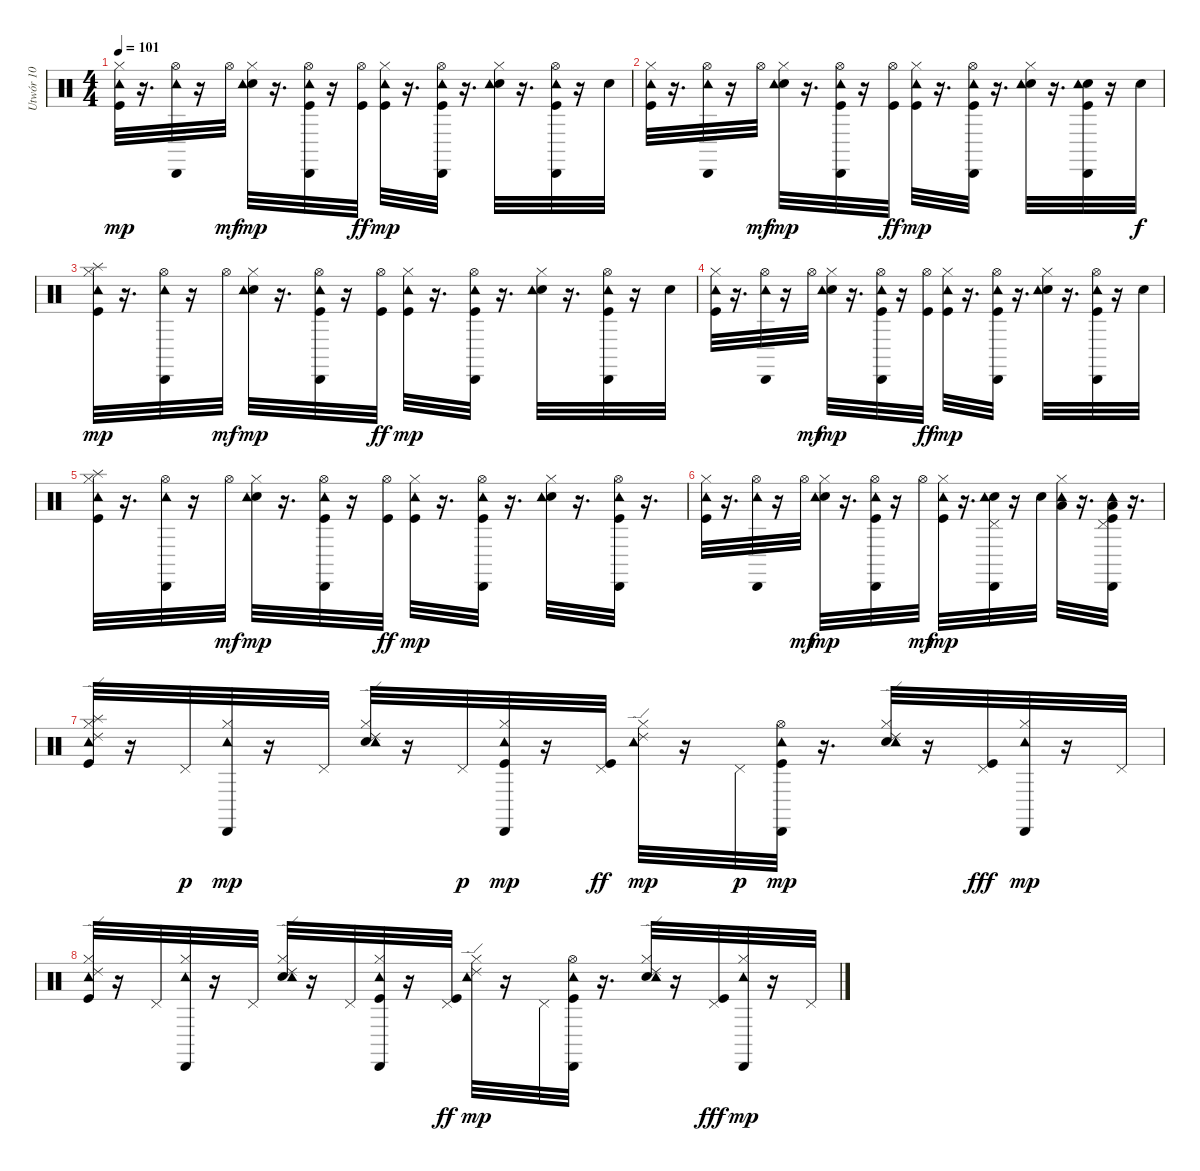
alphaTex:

\track ("Utwór 10" "Utwór 10") {instrument percussion}
\staff {score}
\articulation defaults
\ts (4 4)
\tempo 101
\clef neutral
\ks c
("Hi-Hat (closed)" "Kick (hit)" "Tambourine (hit)").32{dy mp} r.16{d} ("Cabasa (hit)" "Hi-Hat (open)" "Tambourine (hit)").32 r.16 "Hi-Hat (open)".32{dy mf} ("Electric Snare (hit)" "Hi-Hat (closed)" "Tambourine (hit)").32{dy mp} r.16{d} ("Cabasa (hit)" "Hi-Hat (open)" "Kick (hit)" "Tambourine (hit)").32 r.16 ("Hi-Hat (open)" "Kick (hit)").32{dy ff} ("Hi-Hat (closed)" "Kick (hit)" "Tambourine (hit)").32{dy mp} r.16{d} ("Cabasa (hit)" "Hi-Hat (open)" "Kick (hit)" "Tambourine (hit)").32 r.16{d} ("Electric Snare (hit)" "Hi-Hat (closed)" "Tambourine (hit)").32 r.16{d} ("Cabasa (hit)" "Hi-Hat (open)" "Kick (hit)" "Tambourine (hit)").32 r.16 "Electric Snare (hit)".32 |
("Hi-Hat (closed)" "Kick (hit)" "Tambourine (hit)").32 r.16{d} ("Cabasa (hit)" "Hi-Hat (open)" "Tambourine (hit)").32 r.16 "Hi-Hat (open)".32{dy mf} ("Electric Snare (hit)" "Hi-Hat (closed)" "Tambourine (hit)").32{dy mp} r.16{d} ("Cabasa (hit)" "Hi-Hat (open)" "Kick (hit)" "Tambourine (hit)").32 r.16 ("Hi-Hat (open)" "Kick (hit)").32{dy ff} ("Hi-Hat (closed)" "Kick (hit)" "Tambourine (hit)").32{dy mp} r.16{d} ("Cabasa (hit)" "Hi-Hat (open)" "Kick (hit)" "Tambourine (hit)").32 r.16{d} ("Electric Snare (hit)" "Hi-Hat (closed)" "Tambourine (hit)").32 r.16{d} ("Cabasa (hit)" "Electric Snare (hit)" "Kick (hit)" "Tambourine (hit)").32 r.16 "Electric Snare (hit)".32{dy f} |
("Splash (hit)" "Hi-Hat (closed)" "Kick (hit)" "Tambourine (hit)").32{dy mp} r.16{d} ("Cabasa (hit)" "Hi-Hat (open)" "Tambourine (hit)").32 r.16 "Hi-Hat (open)".32{dy mf} ("Electric Snare (hit)" "Hi-Hat (closed)" "Tambourine (hit)").32{dy mp} r.16{d} ("Cabasa (hit)" "Hi-Hat (open)" "Kick (hit)" "Tambourine (hit)").32 r.16 ("Hi-Hat (open)" "Kick (hit)").32{dy ff} ("Hi-Hat (closed)" "Kick (hit)" "Tambourine (hit)").32{dy mp} r.16{d} ("Cabasa (hit)" "Hi-Hat (open)" "Kick (hit)" "Tambourine (hit)").32 r.16{d} ("Electric Snare (hit)" "Hi-Hat (closed)" "Tambourine (hit)").32 r.16{d} ("Cabasa (hit)" "Hi-Hat (open)" "Kick (hit)" "Tambourine (hit)").32 r.16 "Electric Snare (hit)".32 |
("Hi-Hat (closed)" "Kick (hit)" "Tambourine (hit)").32 r.16{d} ("Cabasa (hit)" "Hi-Hat (open)" "Tambourine (hit)").32 r.16 "Hi-Hat (open)".32{dy mf} ("Electric Snare (hit)" "Hi-Hat (closed)" "Tambourine (hit)").32{dy mp} r.16{d} ("Cabasa (hit)" "Hi-Hat (open)" "Kick (hit)" "Tambourine (hit)").32 r.16 ("Hi-Hat (open)" "Kick (hit)").32{dy ff} ("Hi-Hat (closed)" "Kick (hit)" "Tambourine (hit)").32{dy mp} r.16{d} ("Cabasa (hit)" "Hi-Hat (open)" "Kick (hit)" "Tambourine (hit)").32 r.16{d} ("Electric Snare (hit)" "Hi-Hat (closed)" "Tambourine (hit)").32 r.16{d} ("Cabasa (hit)" "Hi-Hat (open)" "Kick (hit)" "Tambourine (hit)").32 r.16 "Electric Snare (hit)".32 |
("Splash (hit)" "Hi-Hat (closed)" "Kick (hit)" "Tambourine (hit)").32 r.16{d} ("Cabasa (hit)" "Hi-Hat (open)" "Tambourine (hit)").32 r.16 "Hi-Hat (open)".32{dy mf} ("Electric Snare (hit)" "Hi-Hat (closed)" "Tambourine (hit)").32{dy mp} r.16{d} ("Cabasa (hit)" "Hi-Hat (open)" "Kick (hit)" "Tambourine (hit)").32 r.16 ("Hi-Hat (open)" "Kick (hit)").32{dy ff} ("Hi-Hat (closed)" "Kick (hit)" "Tambourine (hit)").32{dy mp} r.16{d} ("Cabasa (hit)" "Hi-Hat (open)" "Kick (hit)" "Tambourine (hit)").32 r.16{d} ("Electric Snare (hit)" "Hi-Hat (closed)" "Tambourine (hit)").32 r.16{d} ("Cabasa (hit)" "Hi-Hat (open)" "Kick (hit)" "Tambourine (hit)").32 r.16{d} |
("Hi-Hat (closed)" "Kick (hit)" "Tambourine (hit)").32 r.16{d} ("Cabasa (hit)" "Hi-Hat (open)" "Tambourine (hit)").32 r.16 "Hi-Hat (open)".32{dy mf} ("Electric Snare (hit)" "Hi-Hat (closed)" "Tambourine (hit)").32{dy mp} r.16{d} ("Cabasa (hit)" "Hi-Hat (open)" "Kick (hit)" "Tambourine (hit)").32 r.16 "Hi-Hat (open)".32{dy mf} ("Hi-Hat (closed)" "Kick (hit)" "Tambourine (hit)").32{dy mp} r.16{d} ("Cabasa (hit)" "Electric Snare (hit)" "Pedal Hi-Hat (hit)" "Tambourine (hit)").32 r.16 "Electric Snare (hit)".32 ("Low Tom (hit)" "Hi-Hat (closed)" "Tambourine (hit)").32 r.16{d} ("Cabasa (hit)" "Low Floor Tom (hit)" "Pedal Hi-Hat (hit)" "Kick (hit)" "Tambourine (hit)").32 r.16{d} |
("Ride (edge) 2" "Splash (hit)" "Hi-Hat (closed)" "Kick (hit)" "Tambourine (hit)").32 r.16 "Pedal Hi-Hat (hit)".32{dy p} ("Cabasa (hit)" "Hi-Hat (closed)" "Tambourine (hit)").32{dy mp} r.16 "Pedal Hi-Hat (hit)".32 ("Ride (edge) 2" "Electric Snare (hit)" "Hi-Hat (closed)" "Tambourine (hit)").32 r.16 "Pedal Hi-Hat (hit)".32{dy p} ("Cabasa (hit)" "Hi-Hat (closed)" "Kick (hit)" "Tambourine (hit)").32{dy mp} r.16 ("Pedal Hi-Hat (hit)" "Kick (hit)").32{dy ff} ("Ride (edge) 2" "Hi-Hat (closed)" "Tambourine (hit)").32{dy mp} r.16 "Pedal Hi-Hat (hit)".32{dy p} ("Cabasa (hit)" "Hi-Hat (open)" "Kick (hit)" "Tambourine (hit)").32{dy mp} r.16{d} ("Ride (edge) 2" "Electric Snare (hit)" "Hi-Hat (closed)" "Tambourine (hit)").32 r.16 ("Pedal Hi-Hat (hit)" "Kick (hit)").32{dy fff} ("Cabasa (hit)" "Hi-Hat (closed)" "Tambourine (hit)").32{dy mp} r.16 "Pedal Hi-Hat (hit)".32 |
("Ride (edge) 2" "Hi-Hat (closed)" "Kick (hit)" "Tambourine (hit)").32 r.16 "Pedal Hi-Hat (hit)".32 ("Cabasa (hit)" "Hi-Hat (closed)" "Tambourine (hit)").32 r.16 "Pedal Hi-Hat (hit)".32 ("Ride (edge) 2" "Electric Snare (hit)" "Hi-Hat (closed)" "Tambourine (hit)").32 r.16 "Pedal Hi-Hat (hit)".32 ("Cabasa (hit)" "Hi-Hat (closed)" "Kick (hit)" "Tambourine (hit)").32 r.16 ("Pedal Hi-Hat (hit)" "Kick (hit)").32{dy ff} ("Ride (edge) 2" "Hi-Hat (closed)" "Tambourine (hit)").32{dy mp} r.16 "Pedal Hi-Hat (hit)".32 ("Cabasa (hit)" "Hi-Hat (open)" "Kick (hit)" "Tambourine (hit)").32 r.16{d} ("Ride (edge) 2" "Electric Snare (hit)" "Hi-Hat (closed)" "Tambourine (hit)").32 r.16 ("Pedal Hi-Hat (hit)" "Kick (hit)").32{dy fff} ("Cabasa (hit)" "Hi-Hat (closed)" "Tambourine (hit)").32{dy mp} r.16 "Pedal Hi-Hat (hit)".32
